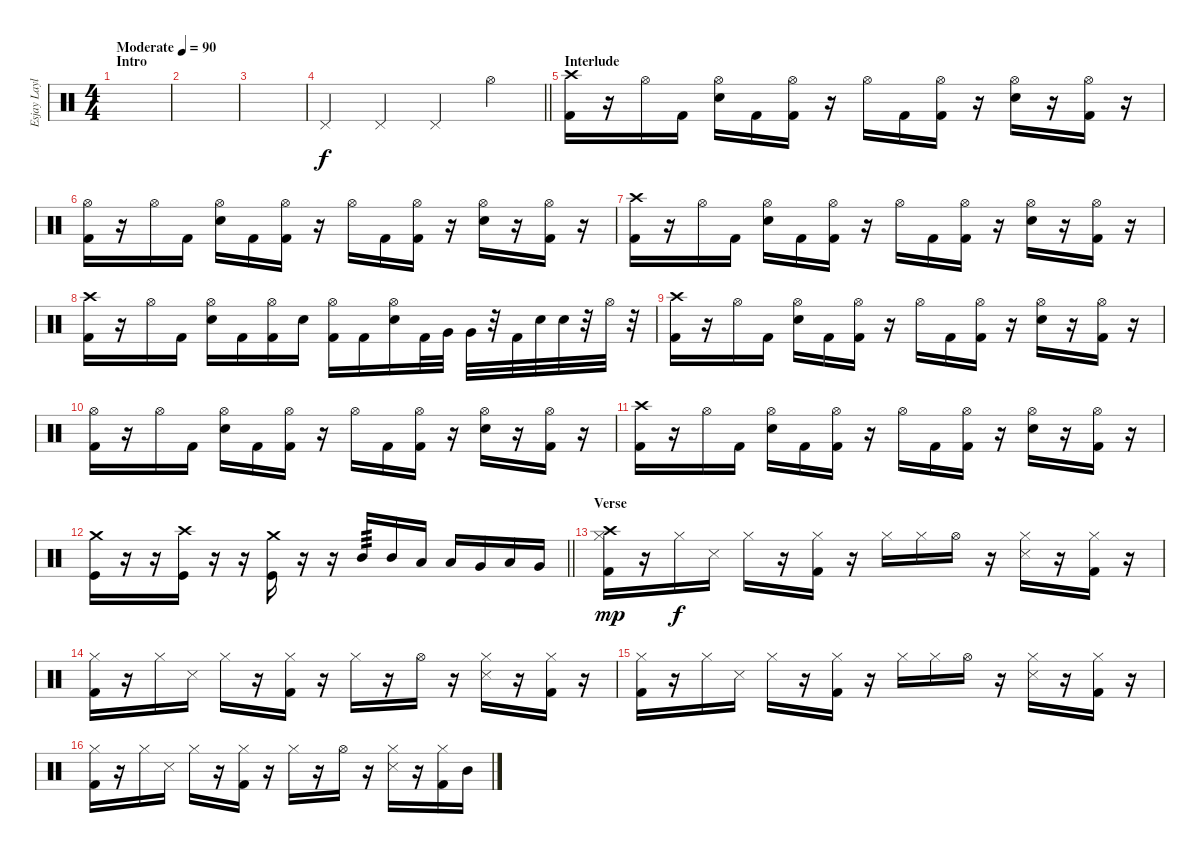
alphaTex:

\track ("Esjay Laylo's Drums" "Esjay Layl") {instrument percussion}
\staff {score}
\articulation defaults
\ts (4 4)
\section ("" "Intro")
\tempo (90 "Moderate")
\clef neutral
\ks c
|
|
|
\barLineRight lightlight "Pedal Hi-Hat (hit)".4 "Pedal Hi-Hat (hit)".4 "Pedal Hi-Hat (hit)".4 "Hi-Hat (open)".4
|
\section ("" "Interlude")
("Crash high (hit)" "Kick (hit) 2").16 r.16 "Hi-Hat (open)".16 "Kick (hit) 2".16 ("Hi-Hat (open)" "Snare (hit) 2").16 "Kick (hit) 2".16 ("Hi-Hat (open)" "Kick (hit) 2").16 r.16 "Hi-Hat (open)".16 "Kick (hit) 2".16 ("Hi-Hat (open)" "Kick (hit) 2").16 r.16 ("Hi-Hat (open)" "Snare (hit) 2").16 r.16 ("Hi-Hat (open)" "Kick (hit) 2").16 r.16 |
("Hi-Hat (open)" "Kick (hit) 2").16 r.16 "Hi-Hat (open)".16 "Kick (hit) 2".16 ("Hi-Hat (open)" "Snare (hit) 2").16 "Kick (hit) 2".16 ("Hi-Hat (open)" "Kick (hit) 2").16 r.16 "Hi-Hat (open)".16 "Kick (hit) 2".16 ("Hi-Hat (open)" "Kick (hit) 2").16 r.16 ("Hi-Hat (open)" "Snare (hit) 2").16 r.16 ("Hi-Hat (open)" "Kick (hit) 2").16 r.16 |
("Crash high (hit)" "Kick (hit) 2").16 r.16 "Hi-Hat (open)".16 "Kick (hit) 2".16 ("Hi-Hat (open)" "Snare (hit) 2").16 "Kick (hit) 2".16 ("Hi-Hat (open)" "Kick (hit) 2").16 r.16 "Hi-Hat (open)".16 "Kick (hit) 2".16 ("Hi-Hat (open)" "Kick (hit) 2").16 r.16 ("Hi-Hat (open)" "Snare (hit) 2").16 r.16 ("Hi-Hat (open)" "Kick (hit) 2").16 r.16 |
("Crash high (hit)" "Kick (hit) 2").16 r.16 "Hi-Hat (open)".16 "Kick (hit) 2".16 ("Hi-Hat (open)" "Snare (hit) 2").16 "Kick (hit) 2".16 ("Hi-Hat (open)" "Kick (hit) 2").16 "Snare (hit) 2".16 ("Hi-Hat (open)" "Kick (hit) 2").16 "Kick (hit) 2".16 ("Hi-Hat (open)" "Snare (hit) 2").16 "Kick (hit) 2".32 "Very Low Tom (hit)".32 "Very Low Tom (hit)".32 r.32 "Kick (hit) 2".32 "Snare (hit) 2".32 "Snare (hit) 2".32 r.32 "Hi-Hat (open)".32 r.32 |
("Crash high (hit)" "Kick (hit) 2").16 r.16 "Hi-Hat (open)".16 "Kick (hit) 2".16 ("Hi-Hat (open)" "Snare (hit) 2").16 "Kick (hit) 2".16 ("Hi-Hat (open)" "Kick (hit) 2").16 r.16 "Hi-Hat (open)".16 "Kick (hit) 2".16 ("Hi-Hat (open)" "Kick (hit) 2").16 r.16 ("Hi-Hat (open)" "Snare (hit) 2").16 r.16 ("Hi-Hat (open)" "Kick (hit) 2").16 r.16 |
("Hi-Hat (open)" "Kick (hit) 2").16 r.16 "Hi-Hat (open)".16 "Kick (hit) 2".16 ("Hi-Hat (open)" "Snare (hit) 2").16 "Kick (hit) 2".16 ("Hi-Hat (open)" "Kick (hit) 2").16 r.16 "Hi-Hat (open)".16 "Kick (hit) 2".16 ("Hi-Hat (open)" "Kick (hit) 2").16 r.16 ("Hi-Hat (open)" "Snare (hit) 2").16 r.16 ("Hi-Hat (open)" "Kick (hit) 2").16 r.16 |
("Crash high (hit)" "Kick (hit) 2").16 r.16 "Hi-Hat (open)".16 "Kick (hit) 2".16 ("Hi-Hat (open)" "Snare (hit) 2").16 "Kick (hit) 2".16 ("Hi-Hat (open)" "Kick (hit) 2").16 r.16 "Hi-Hat (open)".16 "Kick (hit) 2".16 ("Hi-Hat (open)" "Kick (hit) 2").16 r.16 ("Hi-Hat (open)" "Snare (hit) 2").16 r.16 ("Hi-Hat (open)" "Kick (hit) 2").16 r.16 |
\barLineRight lightlight
("Crash medium (hit)" "Kick (hit)").16 r.16 r.16 ("Crash high (hit)" "Kick (hit)").16 r.16 r.16 ("Crash medium (hit)" "Kick (hit)").16 r.16 r.16 "Mid Tom (hit)".16{tp 3} "Mid Tom (hit)".16 "Low Tom (hit)".16 "Low Tom (hit)".16 "Very Low Tom (hit)".16 "Low Tom (hit)".16 "Very Low Tom (hit)".16 |
\section ("" "Verse")
("Hi-Hat (closed)" "Kick (hit) 2" "Crash high (hit)").16{dy mp} r.16 "Hi-Hat (closed)".16{dy f} "Snare (side stick) 3".16 "Hi-Hat (closed)".16 r.16 ("Hi-Hat (closed)" "Kick (hit) 2").16 r.16 "Hi-Hat (closed)".16 "Hi-Hat (closed)".16 "Hi-Hat (open)".16 r.16 ("Hi-Hat (closed)" "Snare (side stick) 3").16 r.16 ("Hi-Hat (closed)" "Kick (hit) 2").16 r.16 |
("Hi-Hat (closed)" "Kick (hit) 2").16 r.16 "Hi-Hat (closed)".16 "Snare (side stick) 3".16 "Hi-Hat (closed)".16 r.16 ("Hi-Hat (closed)" "Kick (hit) 2").16 r.16 "Hi-Hat (closed)".16 r.16 "Hi-Hat (open)".16 r.16 ("Hi-Hat (closed)" "Snare (side stick) 3").16 r.16 ("Hi-Hat (closed)" "Kick (hit) 2").16 r.16 |
("Hi-Hat (closed)" "Kick (hit) 2").16 r.16 "Hi-Hat (closed)".16 "Snare (side stick) 3".16 "Hi-Hat (closed)".16 r.16 ("Hi-Hat (closed)" "Kick (hit) 2").16 r.16 "Hi-Hat (closed)".16 "Hi-Hat (closed)".16 "Hi-Hat (open)".16 r.16 ("Hi-Hat (closed)" "Snare (side stick) 3").16 r.16 ("Hi-Hat (closed)" "Kick (hit) 2").16 r.16 |
("Hi-Hat (closed)" "Kick (hit) 2").16 r.16 "Hi-Hat (closed)".16 "Snare (side stick) 3".16 "Hi-Hat (closed)".16 r.16 ("Hi-Hat (closed)" "Kick (hit) 2").16 r.16 "Hi-Hat (closed)".16 r.16 "Hi-Hat (open)".16 r.16 ("Hi-Hat (closed)" "Snare (side stick) 3").16 r.16 ("Hi-Hat (closed)" "Kick (hit) 2").16 "Mid Tom (hit)".16
